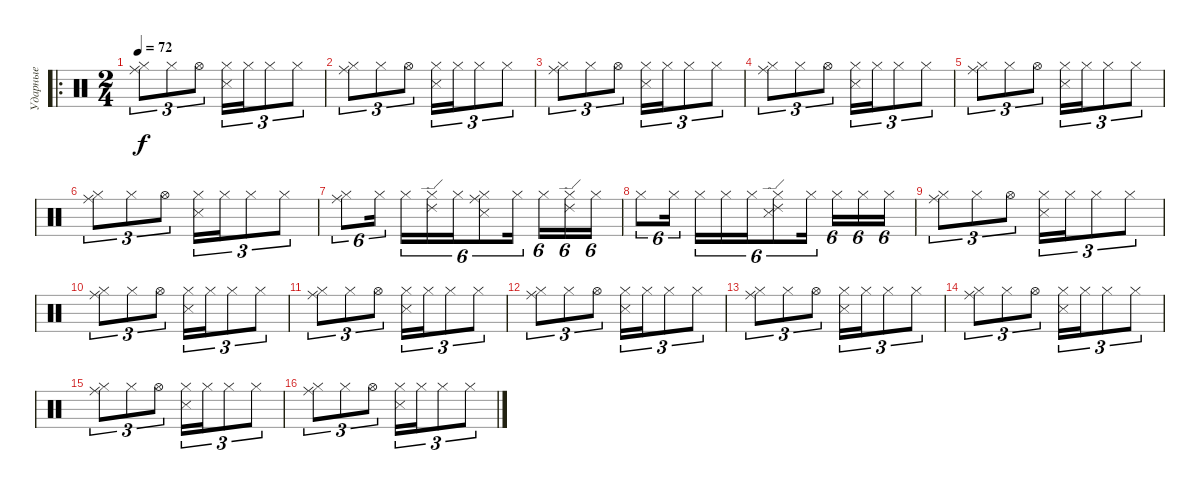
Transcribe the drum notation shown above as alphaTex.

\track ("Ударные" "Ударные") {instrument percussion}
\staff {score}
\articulation defaults
\ro
\ts (2 4)
\tempo 72
\clef neutral
\ks c
("Hi-Hat (closed)" "Ride (middle)").8{tu (3 2) dy f} "Hi-Hat (closed)".8{tu (3 2)} "Hi-Hat (open)".8{tu (3 2)} ("Hi-Hat (closed)" "Snare (side stick) 3").16{tu (3 2)} "Hi-Hat (closed)".16{tu (3 2)} "Hi-Hat (closed)".8{tu (3 2)} "Hi-Hat (closed)".8{tu (3 2)} |
("Hi-Hat (closed)" "Ride (middle)").8{tu (3 2)} "Hi-Hat (closed)".8{tu (3 2)} "Hi-Hat (open)".8{tu (3 2)} ("Hi-Hat (closed)" "Snare (side stick) 3").16{tu (3 2)} "Hi-Hat (closed)".16{tu (3 2)} "Hi-Hat (closed)".8{tu (3 2)} "Hi-Hat (closed)".8{tu (3 2)} |
("Hi-Hat (closed)" "Ride (middle)").8{tu (3 2)} "Hi-Hat (closed)".8{tu (3 2)} "Hi-Hat (open)".8{tu (3 2)} ("Hi-Hat (closed)" "Snare (side stick) 3").16{tu (3 2)} "Hi-Hat (closed)".16{tu (3 2)} "Hi-Hat (closed)".8{tu (3 2)} "Hi-Hat (closed)".8{tu (3 2)} |
("Hi-Hat (closed)" "Ride (middle)").8{tu (3 2)} "Hi-Hat (closed)".8{tu (3 2)} "Hi-Hat (open)".8{tu (3 2)} ("Hi-Hat (closed)" "Snare (side stick) 3").16{tu (3 2)} "Hi-Hat (closed)".16{tu (3 2)} "Hi-Hat (closed)".8{tu (3 2)} "Hi-Hat (closed)".8{tu (3 2)} |
("Hi-Hat (closed)" "Ride (middle)").8{tu (3 2)} "Hi-Hat (closed)".8{tu (3 2)} "Hi-Hat (open)".8{tu (3 2)} ("Hi-Hat (closed)" "Snare (side stick) 3").16{tu (3 2)} "Hi-Hat (closed)".16{tu (3 2)} "Hi-Hat (closed)".8{tu (3 2)} "Hi-Hat (closed)".8{tu (3 2)} |
("Hi-Hat (closed)" "Ride (middle)").8{tu (3 2)} "Hi-Hat (closed)".8{tu (3 2)} "Hi-Hat (open)".8{tu (3 2)} ("Hi-Hat (closed)" "Snare (side stick) 3").16{tu (3 2)} "Hi-Hat (closed)".16{tu (3 2)} "Hi-Hat (closed)".8{tu (3 2)} "Hi-Hat (closed)".8{tu (3 2)} |
("Hi-Hat (closed)" "Ride (middle)").8{tu (6 4)} "Hi-Hat (closed)".16{tu (6 4)} "Hi-Hat (closed)".16{tu (6 4)} ("Hi-Hat (closed)" "Ride (edge) 2").16{tu (6 4)} "Hi-Hat (closed)".16{tu (6 4)} ("Hi-Hat (closed)" "Ride (middle)" "Snare (side stick) 3").8{tu (6 4)} "Hi-Hat (closed)".16{tu (6 4)} "Hi-Hat (closed)".16{tu (6 4)} ("Hi-Hat (closed)" "Ride (edge) 2").16{tu (6 4)} "Hi-Hat (closed)".16{tu (6 4)} |
"Hi-Hat (closed)".8{tu (6 4) volume 13} "Hi-Hat (closed)".16{tu (6 4)} "Hi-Hat (closed)".16{tu (6 4)} "Hi-Hat (closed)".16{tu (6 4)} "Hi-Hat (closed)".16{tu (6 4)} ("Hi-Hat (closed)" "Ride (edge) 2" "Snare (side stick) 3").8{tu (6 4)} "Hi-Hat (closed)".16{tu (6 4)} "Hi-Hat (closed)".16{tu (6 4)} "Hi-Hat (closed)".16{tu (6 4)} "Hi-Hat (closed)".16{tu (6 4)} |
("Hi-Hat (closed)" "Ride (middle)").8{tu (3 2)} "Hi-Hat (closed)".8{tu (3 2)} "Hi-Hat (open)".8{tu (3 2) volume 13} ("Hi-Hat (closed)" "Snare (side stick) 3").16{tu (3 2)} "Hi-Hat (closed)".16{tu (3 2)} "Hi-Hat (closed)".8{tu (3 2)} "Hi-Hat (closed)".8{tu (3 2)} |
("Hi-Hat (closed)" "Ride (middle)").8{tu (3 2) volume 13} "Hi-Hat (closed)".8{tu (3 2)} "Hi-Hat (open)".8{tu (3 2)} ("Hi-Hat (closed)" "Snare (side stick) 3").16{tu (3 2)} "Hi-Hat (closed)".16{tu (3 2)} "Hi-Hat (closed)".8{tu (3 2)} "Hi-Hat (closed)".8{tu (3 2)} |
("Hi-Hat (closed)" "Ride (middle)").8{tu (3 2) volume 13} "Hi-Hat (closed)".8{tu (3 2)} "Hi-Hat (open)".8{tu (3 2)} ("Hi-Hat (closed)" "Snare (side stick) 3").16{tu (3 2)} "Hi-Hat (closed)".16{tu (3 2)} "Hi-Hat (closed)".8{tu (3 2)} "Hi-Hat (closed)".8{tu (3 2)} |
("Hi-Hat (closed)" "Ride (middle)").8{tu (3 2) volume 13} "Hi-Hat (closed)".8{tu (3 2)} "Hi-Hat (open)".8{tu (3 2)} ("Hi-Hat (closed)" "Snare (side stick) 3").16{tu (3 2)} "Hi-Hat (closed)".16{tu (3 2)} "Hi-Hat (closed)".8{tu (3 2)} "Hi-Hat (closed)".8{tu (3 2)} |
("Hi-Hat (closed)" "Ride (middle)").8{tu (3 2)} "Hi-Hat (closed)".8{tu (3 2)} "Hi-Hat (open)".8{tu (3 2)} ("Hi-Hat (closed)" "Snare (side stick) 3").16{tu (3 2)} "Hi-Hat (closed)".16{tu (3 2)} "Hi-Hat (closed)".8{tu (3 2)} "Hi-Hat (closed)".8{tu (3 2)} |
("Hi-Hat (closed)" "Ride (middle)").8{tu (3 2)} "Hi-Hat (closed)".8{tu (3 2)} "Hi-Hat (open)".8{tu (3 2)} ("Hi-Hat (closed)" "Snare (side stick) 3").16{tu (3 2)} "Hi-Hat (closed)".16{tu (3 2)} "Hi-Hat (closed)".8{tu (3 2)} "Hi-Hat (closed)".8{tu (3 2)} |
("Hi-Hat (closed)" "Ride (middle)").8{tu (3 2)} "Hi-Hat (closed)".8{tu (3 2)} "Hi-Hat (open)".8{tu (3 2)} ("Hi-Hat (closed)" "Snare (side stick) 3").16{tu (3 2)} "Hi-Hat (closed)".16{tu (3 2)} "Hi-Hat (closed)".8{tu (3 2)} "Hi-Hat (closed)".8{tu (3 2)} |
("Hi-Hat (closed)" "Ride (middle)").8{tu (3 2)} "Hi-Hat (closed)".8{tu (3 2)} "Hi-Hat (open)".8{tu (3 2)} ("Hi-Hat (closed)" "Snare (side stick) 3").16{tu (3 2)} "Hi-Hat (closed)".16{tu (3 2)} "Hi-Hat (closed)".8{tu (3 2)} "Hi-Hat (closed)".8{tu (3 2)}
